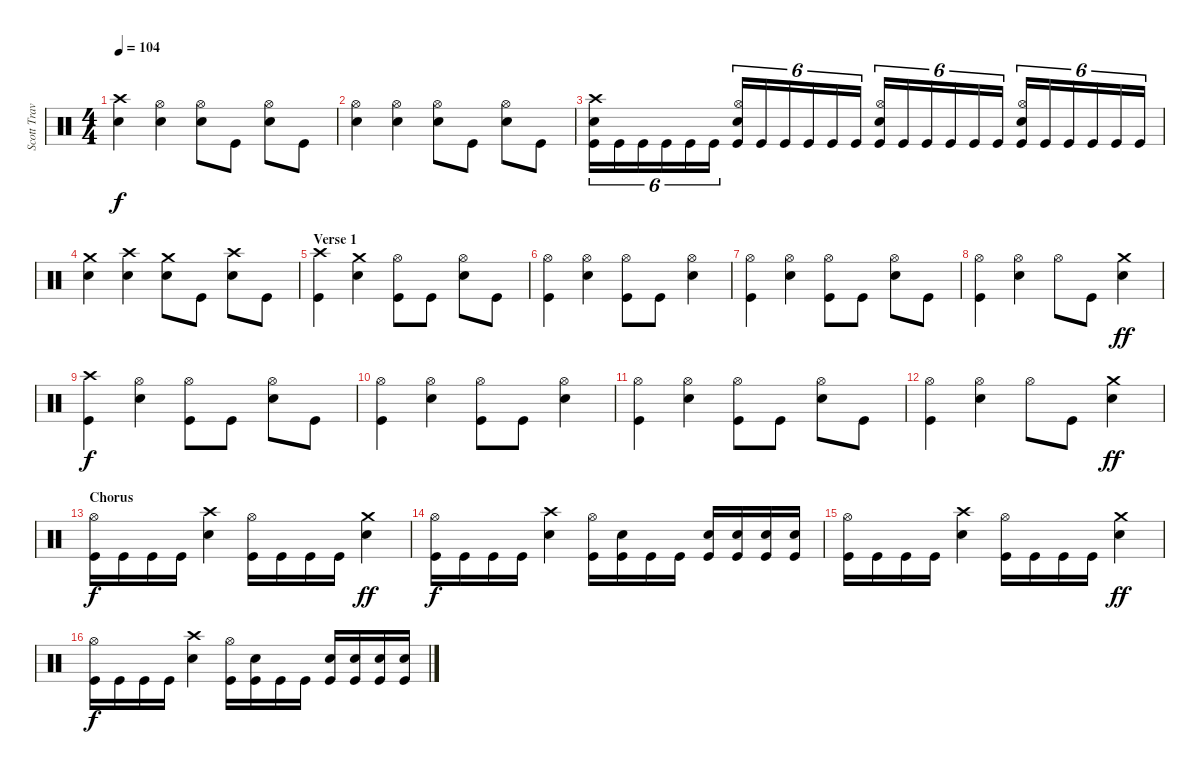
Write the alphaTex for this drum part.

\track ("Scott Travis" "Scott Trav") {instrument percussion}
\staff {score}
\articulation defaults
\ts (4 4)
\tempo 104
\clef neutral
\ks c
("Crash high (hit)" "Electric Snare (hit)").4{dy f} ("Hi-Hat (open)" "Electric Snare (hit)").4 ("Hi-Hat (open)" "Electric Snare (hit)").8 "Kick (hit)".8 ("Hi-Hat (open)" "Electric Snare (hit)").8 "Kick (hit)".8 |
("Hi-Hat (open)" "Electric Snare (hit)").4 ("Hi-Hat (open)" "Electric Snare (hit)").4 ("Hi-Hat (open)" "Electric Snare (hit)").8 "Kick (hit)".8 ("Hi-Hat (open)" "Electric Snare (hit)").8 "Kick (hit)".8 |
("Crash high (hit)" "Electric Snare (hit)" "Kick (hit)").16{tu (6 4)} "Kick (hit)".16{tu (6 4)} "Kick (hit)".16{tu (6 4)} "Kick (hit)".16{tu (6 4)} "Kick (hit)".16{tu (6 4)} "Kick (hit)".16{tu (6 4)} ("Hi-Hat (open)" "Electric Snare (hit)" "Kick (hit)").16{tu (6 4)} "Kick (hit)".16{tu (6 4)} "Kick (hit)".16{tu (6 4)} "Kick (hit)".16{tu (6 4)} "Kick (hit)".16{tu (6 4)} "Kick (hit)".16{tu (6 4)} ("Hi-Hat (open)" "Electric Snare (hit)" "Kick (hit)").16{tu (6 4)} "Kick (hit)".16{tu (6 4)} "Kick (hit)".16{tu (6 4)} "Kick (hit)".16{tu (6 4)} "Kick (hit)".16{tu (6 4)} "Kick (hit)".16{tu (6 4)} ("Hi-Hat (open)" "Electric Snare (hit)" "Kick (hit)").16{tu (6 4)} "Kick (hit)".16{tu (6 4)} "Kick (hit)".16{tu (6 4)} "Kick (hit)".16{tu (6 4)} "Kick (hit)".16{tu (6 4)} "Kick (hit)".16{tu (6 4)} |
("Crash medium (hit)" "Electric Snare (hit)").4 ("Crash high (hit)" "Electric Snare (hit)").4 ("Crash medium (hit)" "Electric Snare (hit)").8 "Kick (hit)".8 ("Crash high (hit)" "Electric Snare (hit)").8 "Kick (hit)".8 |
\section ("" "Verse 1")
("Crash high (hit)" "Kick (hit)").4 ("Crash medium (hit)" "Electric Snare (hit)").4 ("Hi-Hat (open)" "Kick (hit)").8 "Kick (hit)".8 ("Hi-Hat (open)" "Electric Snare (hit)").8 "Kick (hit)".8 |
("Hi-Hat (open)" "Kick (hit)").4 ("Hi-Hat (open)" "Electric Snare (hit)").4 ("Hi-Hat (open)" "Kick (hit)").8 "Kick (hit)".8 ("Hi-Hat (open)" "Electric Snare (hit)").4 |
("Hi-Hat (open)" "Kick (hit)").4 ("Hi-Hat (open)" "Electric Snare (hit)").4 ("Hi-Hat (open)" "Kick (hit)").8 "Kick (hit)".8 ("Hi-Hat (open)" "Electric Snare (hit)").8 "Kick (hit)".8 |
("Hi-Hat (open)" "Kick (hit)").4 ("Hi-Hat (open)" "Electric Snare (hit)").4 "Hi-Hat (open)".8 "Kick (hit)".8 ("Crash medium (hit)" "Electric Snare (hit)").4{dy ff} |
("Crash high (hit)" "Kick (hit)").4{dy f} ("Hi-Hat (open)" "Electric Snare (hit)").4 ("Hi-Hat (open)" "Kick (hit)").8 "Kick (hit)".8 ("Hi-Hat (open)" "Electric Snare (hit)").8 "Kick (hit)".8 |
("Hi-Hat (open)" "Kick (hit)").4 ("Hi-Hat (open)" "Electric Snare (hit)").4 ("Hi-Hat (open)" "Kick (hit)").8 "Kick (hit)".8 ("Hi-Hat (open)" "Electric Snare (hit)").4 |
("Hi-Hat (open)" "Kick (hit)").4 ("Hi-Hat (open)" "Electric Snare (hit)").4 ("Hi-Hat (open)" "Kick (hit)").8 "Kick (hit)".8 ("Hi-Hat (open)" "Electric Snare (hit)").8 "Kick (hit)".8 |
("Hi-Hat (open)" "Kick (hit)").4 ("Hi-Hat (open)" "Electric Snare (hit)").4 "Hi-Hat (open)".8 "Kick (hit)".8 ("Crash medium (hit)" "Electric Snare (hit)").4{dy ff} |
\section ("" "Chorus")
("Hi-Hat (open)" "Kick (hit)").16{dy f} "Kick (hit)".16 "Kick (hit)".16 "Kick (hit)".16 ("Crash high (hit)" "Electric Snare (hit)").4 ("Hi-Hat (open)" "Kick (hit)").16 "Kick (hit)".16 "Kick (hit)".16 "Kick (hit)".16 ("Crash medium (hit)" "Electric Snare (hit)").4{dy ff} |
("Hi-Hat (open)" "Kick (hit)").16{dy f} "Kick (hit)".16 "Kick (hit)".16 "Kick (hit)".16 ("Crash high (hit)" "Electric Snare (hit)").4 ("Hi-Hat (open)" "Kick (hit)").16 ("Electric Snare (hit)" "Kick (hit)").16 "Kick (hit)".16 "Kick (hit)".16 ("Electric Snare (hit)" "Kick (hit)").16 ("Electric Snare (hit)" "Kick (hit)").16 ("Electric Snare (hit)" "Kick (hit)").16 ("Electric Snare (hit)" "Kick (hit)").16 |
("Hi-Hat (open)" "Kick (hit)").16 "Kick (hit)".16 "Kick (hit)".16 "Kick (hit)".16 ("Crash high (hit)" "Electric Snare (hit)").4 ("Hi-Hat (open)" "Kick (hit)").16 "Kick (hit)".16 "Kick (hit)".16 "Kick (hit)".16 ("Crash medium (hit)" "Electric Snare (hit)").4{dy ff} |
("Hi-Hat (open)" "Kick (hit)").16{dy f} "Kick (hit)".16 "Kick (hit)".16 "Kick (hit)".16 ("Crash high (hit)" "Electric Snare (hit)").4 ("Hi-Hat (open)" "Kick (hit)").16 ("Electric Snare (hit)" "Kick (hit)").16 "Kick (hit)".16 "Kick (hit)".16 ("Electric Snare (hit)" "Kick (hit)").16 ("Electric Snare (hit)" "Kick (hit)").16 ("Electric Snare (hit)" "Kick (hit)").16 ("Electric Snare (hit)" "Kick (hit)").16
